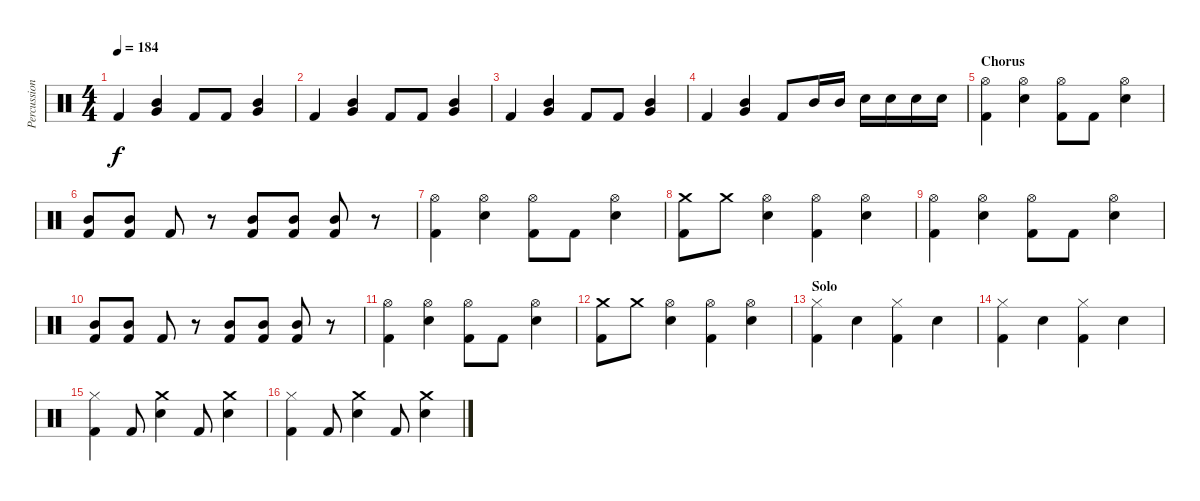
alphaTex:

\track ("Percussioni" "Percussion") {instrument percussion}
\staff {score}
\articulation defaults
\ts (4 4)
\tempo 184
\clef neutral
\ks c "Kick (hit) 2".4{dy f}
("Very Low Tom (hit)" "Mid Tom (hit)").4 "Kick (hit) 2".8 "Kick (hit) 2".8 ("Very Low Tom (hit)" "Mid Tom (hit)").4 |
"Kick (hit) 2".4 ("Very Low Tom (hit)" "Mid Tom (hit)").4 "Kick (hit) 2".8 "Kick (hit) 2".8 ("Very Low Tom (hit)" "Mid Tom (hit)").4 |
"Kick (hit) 2".4 ("Very Low Tom (hit)" "Mid Tom (hit)").4 "Kick (hit) 2".8 "Kick (hit) 2".8 ("Very Low Tom (hit)" "Mid Tom (hit)").4 |
"Kick (hit) 2".4 ("Very Low Tom (hit)" "Mid Tom (hit)").4 "Kick (hit) 2".8 "Mid Tom (hit)".16 "Mid Tom (hit)".16 "Electric Snare (hit)".16 "Electric Snare (hit)".16 "Electric Snare (hit)".16 "Electric Snare (hit)".16 |
\section ("" "Chorus")
("Hi-Hat (open)" "Kick (hit) 2").4 ("Hi-Hat (open)" "Electric Snare (hit)").4 ("Hi-Hat (open)" "Kick (hit) 2").8 "Kick (hit) 2".8 ("Hi-Hat (open)" "Electric Snare (hit)").4 |
("Mid Tom (hit)" "Kick (hit) 2").8 ("Mid Tom (hit)" "Kick (hit) 2").8 "Kick (hit) 2".8 r.8 ("Mid Tom (hit)" "Kick (hit) 2").8 ("Mid Tom (hit)" "Kick (hit) 2").8 ("Mid Tom (hit)" "Kick (hit) 2").8 r.8 |
("Hi-Hat (open)" "Kick (hit) 2").4 ("Hi-Hat (open)" "Electric Snare (hit)").4 ("Hi-Hat (open)" "Kick (hit) 2").8 "Kick (hit) 2".8 ("Hi-Hat (open)" "Electric Snare (hit)").4 |
("Crash medium (hit)" "Kick (hit) 2").8 "Crash medium (hit)".8 ("Hi-Hat (open)" "Electric Snare (hit)").4 ("Hi-Hat (open)" "Kick (hit) 2").4 ("Hi-Hat (open)" "Electric Snare (hit)").4 |
("Hi-Hat (open)" "Kick (hit) 2").4 ("Hi-Hat (open)" "Electric Snare (hit)").4 ("Hi-Hat (open)" "Kick (hit) 2").8 "Kick (hit) 2".8 ("Hi-Hat (open)" "Electric Snare (hit)").4 |
("Mid Tom (hit)" "Kick (hit) 2").8 ("Mid Tom (hit)" "Kick (hit) 2").8 "Kick (hit) 2".8 r.8 ("Mid Tom (hit)" "Kick (hit) 2").8 ("Mid Tom (hit)" "Kick (hit) 2").8 ("Mid Tom (hit)" "Kick (hit) 2").8 r.8 |
("Hi-Hat (open)" "Kick (hit) 2").4 ("Hi-Hat (open)" "Electric Snare (hit)").4 ("Hi-Hat (open)" "Kick (hit) 2").8 "Kick (hit) 2".8 ("Hi-Hat (open)" "Electric Snare (hit)").4 |
("Crash medium (hit)" "Kick (hit) 2").8 "Crash medium (hit)".8 ("Hi-Hat (open)" "Electric Snare (hit)").4 ("Hi-Hat (open)" "Kick (hit) 2").4 ("Hi-Hat (open)" "Electric Snare (hit)").4 |
\section ("" "Solo")
("Hi-Hat (closed)" "Kick (hit) 2").4 "Electric Snare (hit)".4 ("Hi-Hat (closed)" "Kick (hit) 2").4 "Electric Snare (hit)".4 |
("Hi-Hat (closed)" "Kick (hit) 2").4 "Electric Snare (hit)".4 ("Hi-Hat (closed)" "Kick (hit) 2").4 "Electric Snare (hit)".4 |
("Hi-Hat (closed)" "Kick (hit) 2").4 "Kick (hit) 2".8 ("Crash medium (hit)" "Electric Snare (hit)").4 "Kick (hit) 2".8 ("Crash medium (hit)" "Electric Snare (hit)").4 |
("Hi-Hat (closed)" "Kick (hit) 2").4 "Kick (hit) 2".8 ("Crash medium (hit)" "Electric Snare (hit)").4 "Kick (hit) 2".8 ("Crash medium (hit)" "Electric Snare (hit)").4
